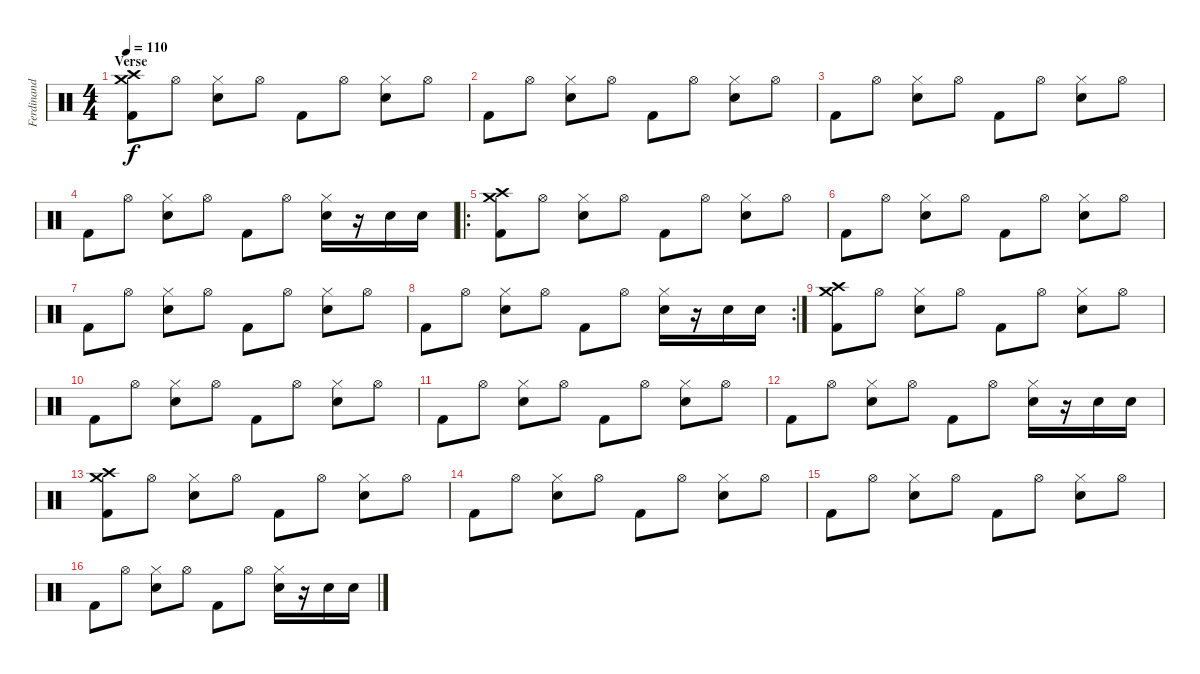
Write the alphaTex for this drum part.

\track ("Ferdinand" "Ferdinand") {instrument percussion}
\staff {score}
\articulation defaults
\ts (4 4)
\section ("" "Verse")
\tempo 110
\clef neutral
\ks c
("Crash medium (hit)" "Crash high (hit)" "Kick (hit) 2").8{dy f} "Hi-Hat (open)".8 ("Hi-Hat (closed)" "Electric Snare (hit)").8 "Hi-Hat (open)".8 "Kick (hit) 2".8 "Hi-Hat (open)".8 ("Hi-Hat (closed)" "Electric Snare (hit)").8 "Hi-Hat (open)".8 |
"Kick (hit) 2".8 "Hi-Hat (open)".8 ("Hi-Hat (closed)" "Electric Snare (hit)").8 "Hi-Hat (open)".8 "Kick (hit) 2".8 "Hi-Hat (open)".8 ("Hi-Hat (closed)" "Electric Snare (hit)").8 "Hi-Hat (open)".8 |
"Kick (hit) 2".8 "Hi-Hat (open)".8 ("Hi-Hat (closed)" "Electric Snare (hit)").8 "Hi-Hat (open)".8 "Kick (hit) 2".8 "Hi-Hat (open)".8 ("Hi-Hat (closed)" "Electric Snare (hit)").8 "Hi-Hat (open)".8 |
"Kick (hit) 2".8 "Hi-Hat (open)".8 ("Hi-Hat (closed)" "Electric Snare (hit)").8 "Hi-Hat (open)".8 "Kick (hit) 2".8 "Hi-Hat (open)".8 ("Hi-Hat (closed)" "Electric Snare (hit)").16 r.16 "Electric Snare (hit)".16 "Electric Snare (hit)".16 |
\ro
("Crash medium (hit)" "Crash high (hit)" "Kick (hit) 2").8 "Hi-Hat (open)".8 ("Hi-Hat (closed)" "Electric Snare (hit)").8 "Hi-Hat (open)".8 "Kick (hit) 2".8 "Hi-Hat (open)".8 ("Hi-Hat (closed)" "Electric Snare (hit)").8 "Hi-Hat (open)".8 |
"Kick (hit) 2".8 "Hi-Hat (open)".8 ("Hi-Hat (closed)" "Electric Snare (hit)").8 "Hi-Hat (open)".8 "Kick (hit) 2".8 "Hi-Hat (open)".8 ("Hi-Hat (closed)" "Electric Snare (hit)").8 "Hi-Hat (open)".8 |
"Kick (hit) 2".8 "Hi-Hat (open)".8 ("Hi-Hat (closed)" "Electric Snare (hit)").8 "Hi-Hat (open)".8 "Kick (hit) 2".8 "Hi-Hat (open)".8 ("Hi-Hat (closed)" "Electric Snare (hit)").8 "Hi-Hat (open)".8 |
\rc 2 "Kick (hit) 2".8 "Hi-Hat (open)".8
("Hi-Hat (closed)" "Electric Snare (hit)").8 "Hi-Hat (open)".8 "Kick (hit) 2".8 "Hi-Hat (open)".8 ("Hi-Hat (closed)" "Electric Snare (hit)").16 r.16 "Electric Snare (hit)".16 "Electric Snare (hit)".16 |
("Crash medium (hit)" "Crash high (hit)" "Kick (hit) 2").8 "Hi-Hat (open)".8 ("Hi-Hat (closed)" "Electric Snare (hit)").8 "Hi-Hat (open)".8 "Kick (hit) 2".8 "Hi-Hat (open)".8 ("Hi-Hat (closed)" "Electric Snare (hit)").8 "Hi-Hat (open)".8 |
"Kick (hit) 2".8 "Hi-Hat (open)".8 ("Hi-Hat (closed)" "Electric Snare (hit)").8 "Hi-Hat (open)".8 "Kick (hit) 2".8 "Hi-Hat (open)".8 ("Hi-Hat (closed)" "Electric Snare (hit)").8 "Hi-Hat (open)".8 |
"Kick (hit) 2".8 "Hi-Hat (open)".8 ("Hi-Hat (closed)" "Electric Snare (hit)").8 "Hi-Hat (open)".8 "Kick (hit) 2".8 "Hi-Hat (open)".8 ("Hi-Hat (closed)" "Electric Snare (hit)").8 "Hi-Hat (open)".8 |
"Kick (hit) 2".8 "Hi-Hat (open)".8 ("Hi-Hat (closed)" "Electric Snare (hit)").8 "Hi-Hat (open)".8 "Kick (hit) 2".8 "Hi-Hat (open)".8 ("Hi-Hat (closed)" "Electric Snare (hit)").16 r.16 "Electric Snare (hit)".16 "Electric Snare (hit)".16 |
("Crash medium (hit)" "Crash high (hit)" "Kick (hit) 2").8 "Hi-Hat (open)".8 ("Hi-Hat (closed)" "Electric Snare (hit)").8 "Hi-Hat (open)".8 "Kick (hit) 2".8 "Hi-Hat (open)".8 ("Hi-Hat (closed)" "Electric Snare (hit)").8 "Hi-Hat (open)".8 |
"Kick (hit) 2".8 "Hi-Hat (open)".8 ("Hi-Hat (closed)" "Electric Snare (hit)").8 "Hi-Hat (open)".8 "Kick (hit) 2".8 "Hi-Hat (open)".8 ("Hi-Hat (closed)" "Electric Snare (hit)").8 "Hi-Hat (open)".8 |
"Kick (hit) 2".8 "Hi-Hat (open)".8 ("Hi-Hat (closed)" "Electric Snare (hit)").8 "Hi-Hat (open)".8 "Kick (hit) 2".8 "Hi-Hat (open)".8 ("Hi-Hat (closed)" "Electric Snare (hit)").8 "Hi-Hat (open)".8 |
"Kick (hit) 2".8 "Hi-Hat (open)".8 ("Hi-Hat (closed)" "Electric Snare (hit)").8 "Hi-Hat (open)".8 "Kick (hit) 2".8 "Hi-Hat (open)".8 ("Hi-Hat (closed)" "Electric Snare (hit)").16 r.16 "Electric Snare (hit)".16 "Electric Snare (hit)".16
